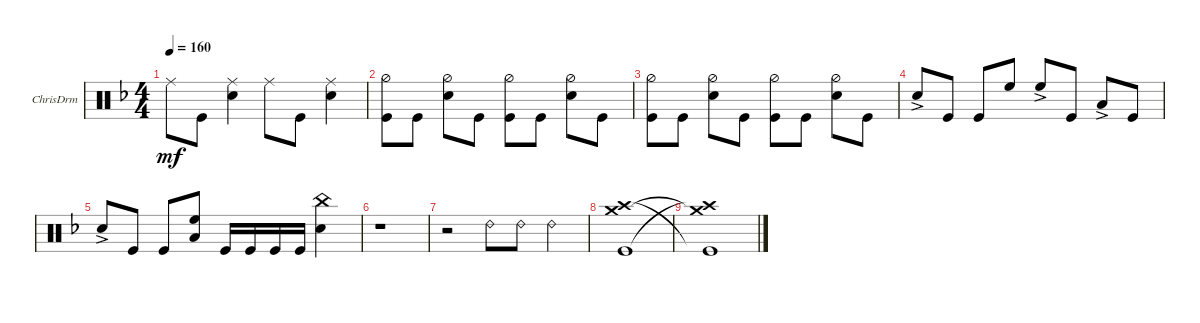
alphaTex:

\defaultSystemsLayout 4
\bracketExtendMode groupsimilarinstruments
\firstSystemTrackNameOrientation horizontal
\otherSystemsTrackNameOrientation horizontal
\track ("Drumkit" "ChrisDrm") {instrument percussion}
\staff {score}
\articulation defaults
\ts (4 4)
\tempo 160
\clef neutral
\ks dminor "Ride (middle)".8{dy mf} "Kick (hit)".8
("Snare (hit) 2" "Ride (middle)").4 "Ride (middle)".8 "Kick (hit)".8 ("Snare (hit) 2" "Ride (middle)").4 |
("Kick (hit)" "Hi-Hat (half)").8 "Kick (hit)".8 ("Snare (hit) 2" "Hi-Hat (half)").8 "Kick (hit)".8 ("Kick (hit)" "Hi-Hat (half)").8 "Kick (hit)".8 ("Snare (hit) 2" "Hi-Hat (half)").8 "Kick (hit)".8 |
("Kick (hit)" "Hi-Hat (half)").8 "Kick (hit)".8 ("Snare (hit) 2" "Hi-Hat (half)").8 "Kick (hit)".8 ("Kick (hit)" "Hi-Hat (half)").8 "Kick (hit)".8 ("Snare (hit) 2" "Hi-Hat (half)").8 "Kick (hit)".8 |
"Snare (hit) 2"{ac}.8 "Kick (hit)".8 "Kick (hit)".8 "High Floor Tom (hit)".8 "High Floor Tom (hit)"{ac}.8 "Kick (hit)".8 "Low Tom (hit)"{ac}.8 "Kick (hit)".8 |
"Snare (hit) 2"{ac}.8 "Kick (hit)".8 "Kick (hit)".8 ("High Floor Tom (hit)" "Low Tom (hit)").8 "Kick (hit)".16 "Kick (hit)".16 "Kick (hit)".16 "Kick (hit)".16 ("Snare (hit) 2" "China (hit)").4 |
r.1 |
r.2 "Ride (bell) 2".8 "Ride (bell) 2".8 "Ride (bell) 2".4 |
("Crash high (hit)" "Crash medium (hit)" "Kick (hit)").1 |
("Kick (hit)"{t} "Crash medium (hit)"{t} "Crash high (hit)"{t}).1
